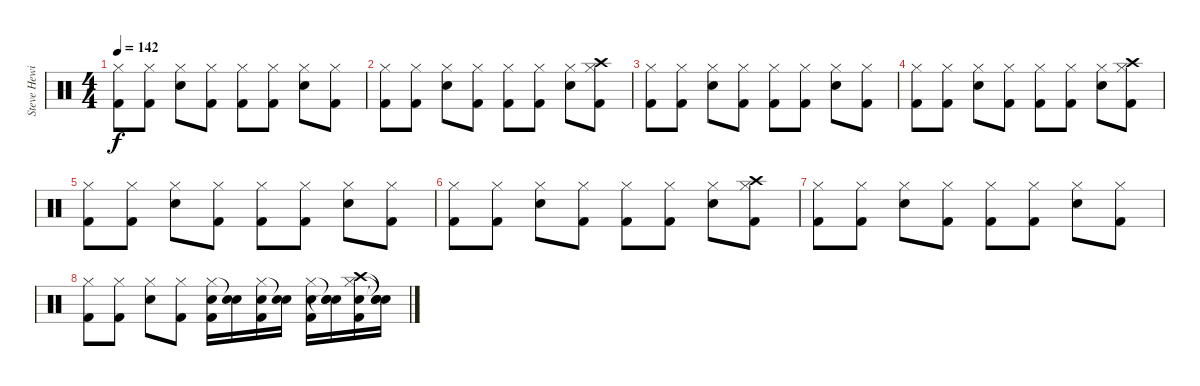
\track ("Steve Hewitt" "Steve Hewi") {instrument percussion}
\staff {score}
\articulation defaults
\ts (4 4)
\tempo 142
\clef neutral
\ks c
("Hi-Hat (closed)" "Kick (hit) 2").8{dy f} ("Hi-Hat (closed)" "Kick (hit) 2").8 ("Hi-Hat (closed)" "Snare (hit) 2").8 ("Hi-Hat (closed)" "Kick (hit) 2").8 ("Hi-Hat (closed)" "Kick (hit) 2").8 ("Hi-Hat (closed)" "Kick (hit) 2").8 ("Hi-Hat (closed)" "Snare (hit) 2").8 ("Hi-Hat (closed)" "Kick (hit) 2").8 |
("Hi-Hat (closed)" "Kick (hit) 2").8 ("Hi-Hat (closed)" "Kick (hit) 2").8 ("Hi-Hat (closed)" "Snare (hit) 2").8 ("Hi-Hat (closed)" "Kick (hit) 2").8 ("Hi-Hat (closed)" "Kick (hit) 2").8 ("Hi-Hat (closed)" "Kick (hit) 2").8 ("Hi-Hat (closed)" "Snare (hit) 2").8 ("Crash high (hit)" "Hi-Hat (closed)" "Kick (hit) 2").8 |
("Hi-Hat (closed)" "Kick (hit) 2").8 ("Hi-Hat (closed)" "Kick (hit) 2").8 ("Hi-Hat (closed)" "Snare (hit) 2").8 ("Hi-Hat (closed)" "Kick (hit) 2").8 ("Hi-Hat (closed)" "Kick (hit) 2").8 ("Hi-Hat (closed)" "Kick (hit) 2").8 ("Hi-Hat (closed)" "Snare (hit) 2").8 ("Hi-Hat (closed)" "Kick (hit) 2").8 |
("Hi-Hat (closed)" "Kick (hit) 2").8 ("Hi-Hat (closed)" "Kick (hit) 2").8 ("Hi-Hat (closed)" "Snare (hit) 2").8 ("Hi-Hat (closed)" "Kick (hit) 2").8 ("Hi-Hat (closed)" "Kick (hit) 2").8 ("Hi-Hat (closed)" "Kick (hit) 2").8 ("Hi-Hat (closed)" "Snare (hit) 2").8 ("Crash high (hit)" "Hi-Hat (closed)" "Kick (hit) 2").8 |
("Hi-Hat (closed)" "Kick (hit) 2").8 ("Hi-Hat (closed)" "Kick (hit) 2").8 ("Hi-Hat (closed)" "Snare (hit) 2").8 ("Hi-Hat (closed)" "Kick (hit) 2").8 ("Hi-Hat (closed)" "Kick (hit) 2").8 ("Hi-Hat (closed)" "Kick (hit) 2").8 ("Hi-Hat (closed)" "Snare (hit) 2").8 ("Hi-Hat (closed)" "Kick (hit) 2").8 |
("Hi-Hat (closed)" "Kick (hit) 2").8 ("Hi-Hat (closed)" "Kick (hit) 2").8 ("Hi-Hat (closed)" "Snare (hit) 2").8 ("Hi-Hat (closed)" "Kick (hit) 2").8 ("Hi-Hat (closed)" "Kick (hit) 2").8 ("Hi-Hat (closed)" "Kick (hit) 2").8 ("Hi-Hat (closed)" "Snare (hit) 2").8 ("Crash high (hit)" "Hi-Hat (closed)" "Kick (hit) 2").8 |
("Hi-Hat (closed)" "Kick (hit) 2").8 ("Hi-Hat (closed)" "Kick (hit) 2").8 ("Hi-Hat (closed)" "Snare (hit) 2").8 ("Hi-Hat (closed)" "Kick (hit) 2").8 ("Hi-Hat (closed)" "Kick (hit) 2").8 ("Hi-Hat (closed)" "Kick (hit) 2").8 ("Hi-Hat (closed)" "Snare (hit) 2").8 ("Hi-Hat (closed)" "Kick (hit) 2").8 |
("Hi-Hat (closed)" "Kick (hit) 2").8 ("Hi-Hat (closed)" "Kick (hit) 2").8 ("Hi-Hat (closed)" "Snare (hit) 2").8 ("Hi-Hat (closed)" "Kick (hit) 2").8 ("Snare (hit) 2" "Hi-Hat (closed)" "Kick (hit) 2").16 ("Snare (hit) 2" "Snare (hit)"{t}).16 ("Snare (hit) 2" "Hi-Hat (closed)" "Kick (hit) 2").16 ("Snare (hit) 2" "Snare (hit)"{t}).16 ("Snare (hit) 2" "Hi-Hat (closed)" "Kick (hit) 2").16 ("Snare (hit) 2" "Snare (hit)"{t} "Snare (hit)"{t}).16 ("Snare (hit) 2" "Crash high (hit)" "Hi-Hat (closed)" "Kick (hit) 2").16 ("Snare (hit)"{t} "Snare (hit)"{t} "Snare (hit)"{t}).16
